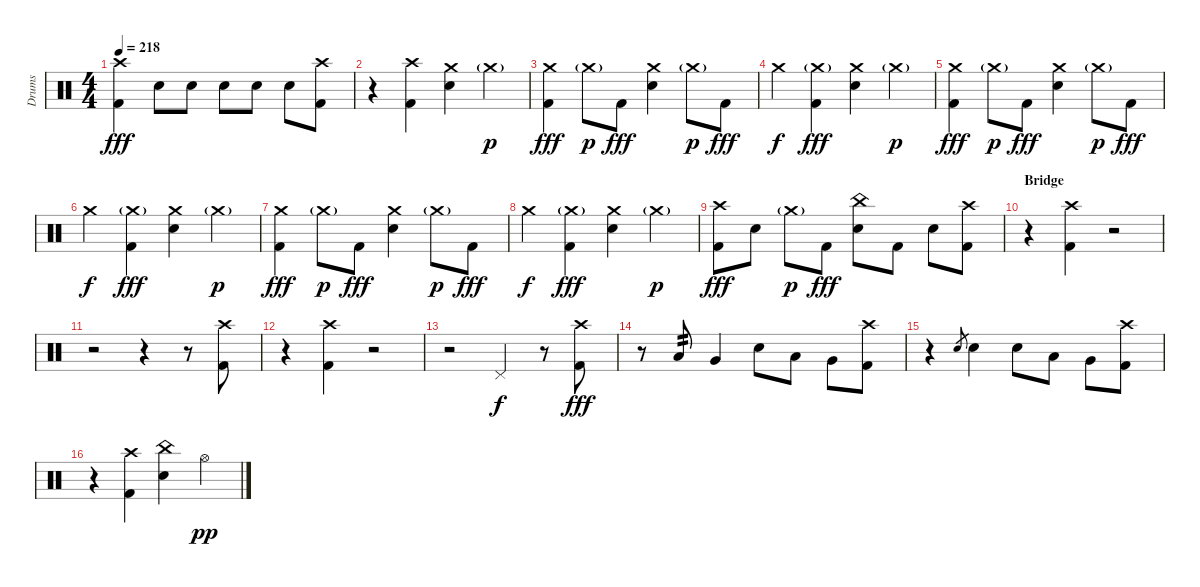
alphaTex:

\track ("Drums" "Drums") {instrument percussion}
\staff {score}
\articulation defaults
\ts (4 4)
\tempo 218
\clef neutral
\ks c
("Crash high (hit)" "Kick (hit) 2").4{dy fff} "Electric Snare (hit)".8 "Electric Snare (hit)".8 "Electric Snare (hit)".8 "Electric Snare (hit)".8 "Electric Snare (hit)".8 ("Crash high (hit)" "Kick (hit) 2").8 |
r.4 ("Crash high (hit)" "Kick (hit) 2").4 ("Crash medium (hit)" "Electric Snare (hit)").4 "Crash medium (hit)"{g}.4{dy p} |
("Crash medium (hit)" "Kick (hit) 2").4{dy fff} "Crash medium (hit)"{g}.8{dy p} "Kick (hit) 2".8{dy fff} ("Crash medium (hit)" "Electric Snare (hit)").4 "Crash medium (hit)"{g}.8{dy p} "Kick (hit) 2".8{dy fff} |
"Crash medium (hit)".4{dy f} ("Crash medium (hit)"{g} "Kick (hit) 2").4{dy fff} ("Crash medium (hit)" "Electric Snare (hit)").4 "Crash medium (hit)"{g}.4{dy p} |
("Crash medium (hit)" "Kick (hit) 2").4{dy fff} "Crash medium (hit)"{g}.8{dy p} "Kick (hit) 2".8{dy fff} ("Crash medium (hit)" "Electric Snare (hit)").4 "Crash medium (hit)"{g}.8{dy p} "Kick (hit) 2".8{dy fff} |
"Crash medium (hit)".4{dy f} ("Crash medium (hit)"{g} "Kick (hit) 2").4{dy fff} ("Crash medium (hit)" "Electric Snare (hit)").4 "Crash medium (hit)"{g}.4{dy p} |
("Crash medium (hit)" "Kick (hit) 2").4{dy fff} "Crash medium (hit)"{g}.8{dy p} "Kick (hit) 2".8{dy fff} ("Crash medium (hit)" "Electric Snare (hit)").4 "Crash medium (hit)"{g}.8{dy p} "Kick (hit) 2".8{dy fff} |
"Crash medium (hit)".4{dy f} ("Crash medium (hit)"{g} "Kick (hit) 2").4{dy fff} ("Crash medium (hit)" "Electric Snare (hit)").4 "Crash medium (hit)"{g}.4{dy p} |
("Crash high (hit)" "Kick (hit) 2").8{dy fff} "Electric Snare (hit)".8 "Crash medium (hit)"{g}.8{dy p} "Kick (hit) 2".8{dy fff} ("China (hit)" "Electric Snare (hit)").8 "Kick (hit) 2".8 "Electric Snare (hit)".8 ("Crash high (hit)" "Kick (hit) 2").8 |
\section ("" "Bridge")
r.4 ("Crash high (hit)" "Kick (hit) 2").4 r.2 |
r.2 r.4 r.8 ("Crash high (hit)" "Kick (hit) 2").8 |
r.4 ("Crash high (hit)" "Kick (hit) 2").4 r.2 |
r.2 "Pedal Hi-Hat (hit)".4{dy f} r.8 ("Crash high (hit)" "Kick (hit) 2").8{dy fff} |
r.8 "Low Tom (hit)".8{tp 2} "Very Low Tom (hit)".4 "Electric Snare (hit)".8 "Low Tom (hit)".8 "Very Low Tom (hit)".8 ("Crash high (hit)" "Kick (hit) 2").8 |
r.4 "Electric Snare (hit)".8{gr} "Electric Snare (hit)".4 "Electric Snare (hit)".8 "Low Tom (hit)".8 "Very Low Tom (hit)".8 ("Crash high (hit)" "Kick (hit) 2").8 |
r.4 ("Crash high (hit)" "Kick (hit) 2").4 ("China (hit)" "Electric Snare (hit)").4 "Hi-Hat (open)".4{dy pp}
